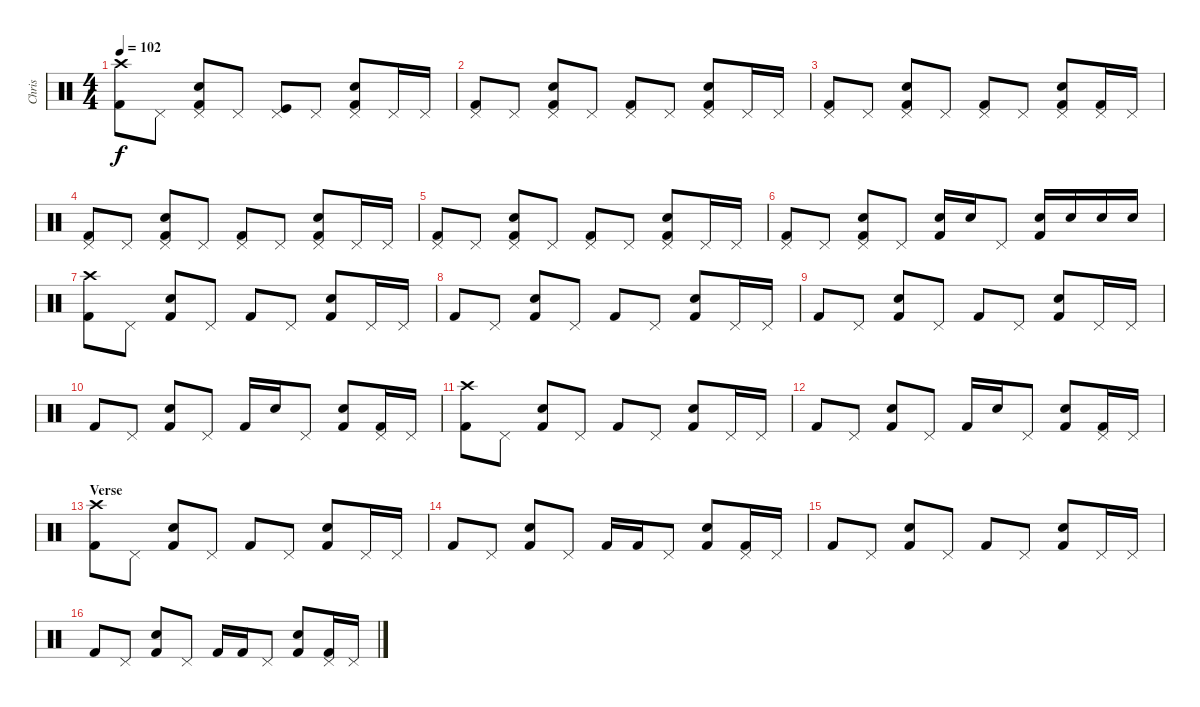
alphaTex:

\track ("Chris" "Chris") {instrument percussion}
\staff {score}
\articulation defaults
\ts (4 4)
\tempo 102
\clef neutral
\ks c
("Crash high (hit)" "Kick (hit) 2").8{dy f} "Pedal Hi-Hat (hit)".8 ("Pedal Hi-Hat (hit)" "Snare (hit) 2" "Kick (hit) 2").8 "Pedal Hi-Hat (hit)".8 ("Pedal Hi-Hat (hit)" "Kick (hit)").8 "Pedal Hi-Hat (hit)".8 ("Pedal Hi-Hat (hit)" "Snare (hit) 2" "Kick (hit) 2").8 "Pedal Hi-Hat (hit)".16 "Pedal Hi-Hat (hit)".16 |
("Pedal Hi-Hat (hit)" "Kick (hit) 2").8 "Pedal Hi-Hat (hit)".8 ("Pedal Hi-Hat (hit)" "Snare (hit) 2" "Kick (hit) 2").8 "Pedal Hi-Hat (hit)".8 ("Pedal Hi-Hat (hit)" "Kick (hit) 2").8 "Pedal Hi-Hat (hit)".8 ("Pedal Hi-Hat (hit)" "Snare (hit) 2" "Kick (hit) 2").8 "Pedal Hi-Hat (hit)".16 "Pedal Hi-Hat (hit)".16 |
("Pedal Hi-Hat (hit)" "Kick (hit) 2").8 "Pedal Hi-Hat (hit)".8 ("Pedal Hi-Hat (hit)" "Snare (hit) 2" "Kick (hit) 2").8 "Pedal Hi-Hat (hit)".8 ("Pedal Hi-Hat (hit)" "Kick (hit) 2").8 "Pedal Hi-Hat (hit)".8 ("Pedal Hi-Hat (hit)" "Snare (hit) 2" "Kick (hit) 2").8 ("Pedal Hi-Hat (hit)" "Kick (hit) 2").16 "Pedal Hi-Hat (hit)".16 |
("Pedal Hi-Hat (hit)" "Kick (hit) 2").8 "Pedal Hi-Hat (hit)".8 ("Pedal Hi-Hat (hit)" "Snare (hit) 2" "Kick (hit) 2").8 "Pedal Hi-Hat (hit)".8 ("Pedal Hi-Hat (hit)" "Kick (hit) 2").8 "Pedal Hi-Hat (hit)".8 ("Pedal Hi-Hat (hit)" "Snare (hit) 2" "Kick (hit) 2").8 "Pedal Hi-Hat (hit)".16 "Pedal Hi-Hat (hit)".16 |
("Pedal Hi-Hat (hit)" "Kick (hit) 2").8 "Pedal Hi-Hat (hit)".8 ("Pedal Hi-Hat (hit)" "Snare (hit) 2" "Kick (hit) 2").8 "Pedal Hi-Hat (hit)".8 ("Pedal Hi-Hat (hit)" "Kick (hit) 2").8 "Pedal Hi-Hat (hit)".8 ("Pedal Hi-Hat (hit)" "Snare (hit) 2" "Kick (hit) 2").8 "Pedal Hi-Hat (hit)".16 "Pedal Hi-Hat (hit)".16 |
("Pedal Hi-Hat (hit)" "Kick (hit) 2").8 "Pedal Hi-Hat (hit)".8 ("Pedal Hi-Hat (hit)" "Snare (hit) 2" "Kick (hit) 2").8 "Pedal Hi-Hat (hit)".8 ("Snare (hit) 2" "Kick (hit) 2").16 "Snare (hit) 2".16 "Pedal Hi-Hat (hit)".8 ("Snare (hit) 2" "Kick (hit) 2").16 "Snare (hit) 2".16 "Snare (hit) 2".16 "Snare (hit) 2".16 |
("Crash high (hit)" "Kick (hit) 2").8 "Pedal Hi-Hat (hit)".8 ("Snare (hit) 2" "Kick (hit) 2").8 "Pedal Hi-Hat (hit)".8 "Kick (hit) 2".8 "Pedal Hi-Hat (hit)".8 ("Snare (hit) 2" "Kick (hit) 2").8 "Pedal Hi-Hat (hit)".16 "Pedal Hi-Hat (hit)".16 |
"Kick (hit) 2".8 "Pedal Hi-Hat (hit)".8 ("Snare (hit) 2" "Kick (hit) 2").8 "Pedal Hi-Hat (hit)".8 "Kick (hit) 2".8 "Pedal Hi-Hat (hit)".8 ("Snare (hit) 2" "Kick (hit) 2").8 "Pedal Hi-Hat (hit)".16 "Pedal Hi-Hat (hit)".16 |
"Kick (hit) 2".8 "Pedal Hi-Hat (hit)".8 ("Snare (hit) 2" "Kick (hit) 2").8 "Pedal Hi-Hat (hit)".8 "Kick (hit) 2".8 "Pedal Hi-Hat (hit)".8 ("Snare (hit) 2" "Kick (hit) 2").8 "Pedal Hi-Hat (hit)".16 "Pedal Hi-Hat (hit)".16 |
"Kick (hit) 2".8 "Pedal Hi-Hat (hit)".8 ("Snare (hit) 2" "Kick (hit) 2").8 "Pedal Hi-Hat (hit)".8 "Kick (hit) 2".16 "Snare (hit) 2".16 "Pedal Hi-Hat (hit)".8 ("Snare (hit) 2" "Kick (hit) 2").8 ("Pedal Hi-Hat (hit)" "Kick (hit) 2").16 "Pedal Hi-Hat (hit)".16 |
("Crash high (hit)" "Kick (hit) 2").8 "Pedal Hi-Hat (hit)".8 ("Snare (hit) 2" "Kick (hit) 2").8 "Pedal Hi-Hat (hit)".8 "Kick (hit) 2".8 "Pedal Hi-Hat (hit)".8 ("Snare (hit) 2" "Kick (hit) 2").8 "Pedal Hi-Hat (hit)".16 "Pedal Hi-Hat (hit)".16 |
"Kick (hit) 2".8 "Pedal Hi-Hat (hit)".8 ("Snare (hit) 2" "Kick (hit) 2").8 "Pedal Hi-Hat (hit)".8 "Kick (hit) 2".16 "Snare (hit) 2".16 "Pedal Hi-Hat (hit)".8 ("Snare (hit) 2" "Kick (hit) 2").8 ("Pedal Hi-Hat (hit)" "Kick (hit) 2").16 "Pedal Hi-Hat (hit)".16 |
\section ("" "Verse")
("Crash high (hit)" "Kick (hit) 2").8 "Pedal Hi-Hat (hit)".8 ("Snare (hit) 2" "Kick (hit) 2").8 "Pedal Hi-Hat (hit)".8 "Kick (hit) 2".8 "Pedal Hi-Hat (hit)".8 ("Snare (hit) 2" "Kick (hit) 2").8 "Pedal Hi-Hat (hit)".16 "Pedal Hi-Hat (hit)".16 |
"Kick (hit) 2".8 "Pedal Hi-Hat (hit)".8 ("Snare (hit) 2" "Kick (hit) 2").8 "Pedal Hi-Hat (hit)".8 "Kick (hit) 2".16 "Kick (hit) 2".16 "Pedal Hi-Hat (hit)".8 ("Snare (hit) 2" "Kick (hit) 2").8 ("Pedal Hi-Hat (hit)" "Kick (hit) 2").16 "Pedal Hi-Hat (hit)".16 |
"Kick (hit) 2".8 "Pedal Hi-Hat (hit)".8 ("Snare (hit) 2" "Kick (hit) 2").8 "Pedal Hi-Hat (hit)".8 "Kick (hit) 2".8 "Pedal Hi-Hat (hit)".8 ("Snare (hit) 2" "Kick (hit) 2").8 "Pedal Hi-Hat (hit)".16 "Pedal Hi-Hat (hit)".16 |
"Kick (hit) 2".8 "Pedal Hi-Hat (hit)".8 ("Snare (hit) 2" "Kick (hit) 2").8 "Pedal Hi-Hat (hit)".8 "Kick (hit) 2".16 "Kick (hit) 2".16 "Pedal Hi-Hat (hit)".8 ("Snare (hit) 2" "Kick (hit) 2").8 ("Pedal Hi-Hat (hit)" "Kick (hit) 2").16 "Pedal Hi-Hat (hit)".16
